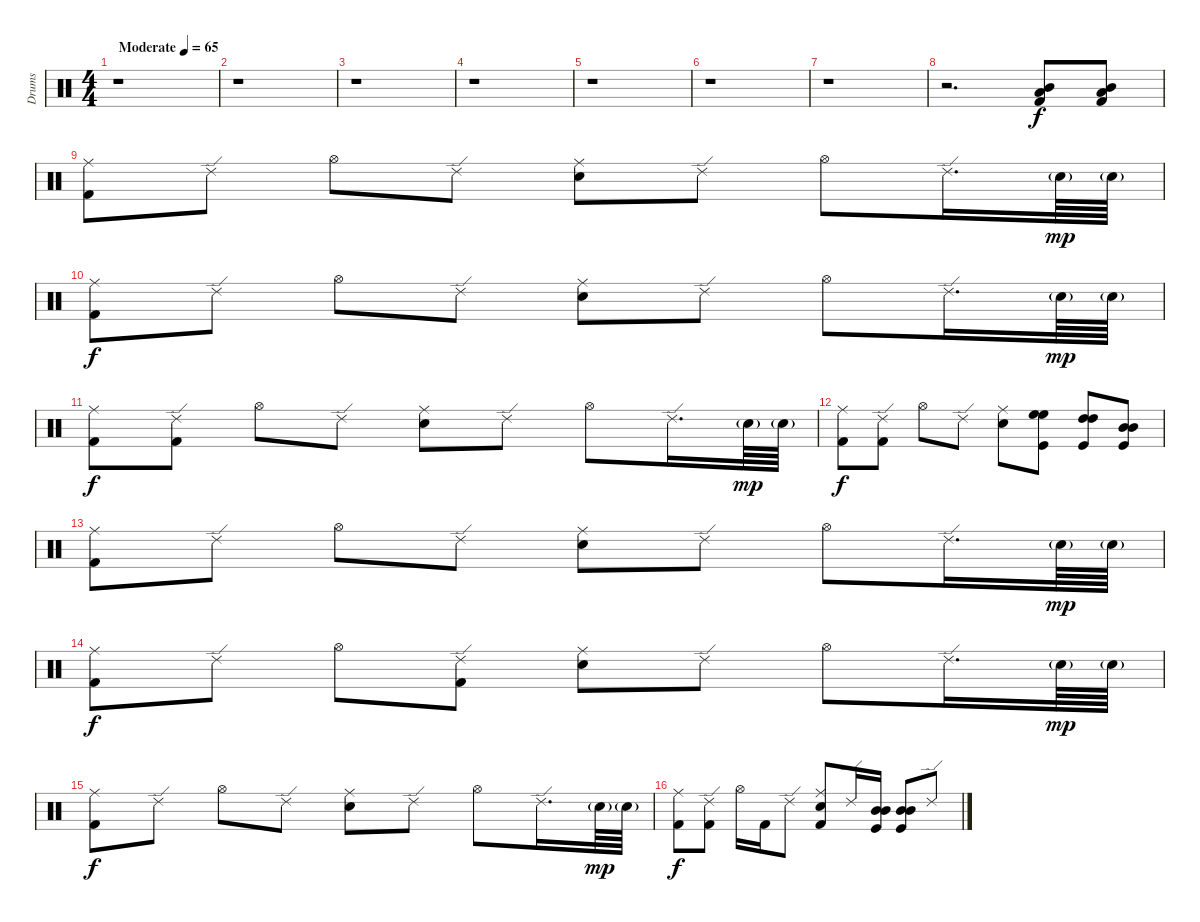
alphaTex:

\track ("Drums" "Drums") {instrument percussion}
\staff {score}
\articulation defaults
\ts (4 4)
\tempo (65 "Moderate")
\clef neutral
\ks c
r.1{dy f} |
r.1 |
r.1 |
r.1 |
r.1 |
r.1 |
r.1 |
r.2{d} ("Mid Tom (hit)" "Low Tom (hit)" "Kick (hit) 2").8 ("Mid Tom (hit)" "Low Tom (hit)" "Kick (hit) 2").8 |
("Ride (middle)" "Kick (hit) 2").8 "Ride (edge) 2".8 "Hi-Hat (open)".8 "Ride (edge) 2".8 ("Ride (middle)" "Snare (hit) 2").8 "Ride (edge) 2".8 "Hi-Hat (open)".8 "Ride (edge) 2".16{d} "Snare (hit) 2"{g}.64{dy mp} "Snare (hit) 2"{g}.64 |
("Ride (middle)" "Kick (hit) 2").8{dy f} "Ride (edge) 2".8 "Hi-Hat (open)".8 "Ride (edge) 2".8 ("Ride (middle)" "Snare (hit) 2").8 "Ride (edge) 2".8 "Hi-Hat (open)".8 "Ride (edge) 2".16{d} "Snare (hit) 2"{g}.64{dy mp} "Snare (hit) 2"{g}.64 |
("Ride (middle)" "Kick (hit) 2").8{dy f} ("Ride (edge) 2" "Kick (hit) 2").8 "Hi-Hat (open)".8 "Ride (edge) 2".8 ("Ride (middle)" "Snare (hit) 2").8 "Ride (edge) 2".8 "Hi-Hat (open)".8 "Ride (edge) 2".16{d} "Snare (hit) 2"{g}.64{dy mp} "Snare (hit) 2"{g}.64 |
("Ride (middle)" "Kick (hit) 2").8{dy f} ("Ride (edge) 2" "Kick (hit) 2").8 "Hi-Hat (open)".8 "Ride (edge) 2".8 ("Ride (middle)" "Snare (hit) 2").8 ("High Floor Tom (hit)" "High Floor Tom (hit)" "Kick (hit)").8 ("High Tom (hit)" "High Tom (hit)" "Kick (hit)").8 ("Mid Tom (hit)" "Mid Tom (hit)" "Kick (hit)").8 |
("Ride (middle)" "Kick (hit) 2").8 "Ride (edge) 2".8 "Hi-Hat (open)".8 "Ride (edge) 2".8 ("Ride (middle)" "Snare (hit) 2").8 "Ride (edge) 2".8 "Hi-Hat (open)".8 "Ride (edge) 2".16{d} "Snare (hit) 2"{g}.64{dy mp} "Snare (hit) 2"{g}.64 |
("Ride (middle)" "Kick (hit) 2").8{dy f} "Ride (edge) 2".8 "Hi-Hat (open)".8 ("Ride (edge) 2" "Kick (hit) 2").8 ("Ride (middle)" "Snare (hit) 2").8 "Ride (edge) 2".8 "Hi-Hat (open)".8 "Ride (edge) 2".16{d} "Snare (hit) 2"{g}.64{dy mp} "Snare (hit) 2"{g}.64 |
("Ride (middle)" "Kick (hit) 2").8{dy f} "Ride (edge) 2".8 "Hi-Hat (open)".8 "Ride (edge) 2".8 ("Ride (middle)" "Snare (hit) 2").8 "Ride (edge) 2".8 "Hi-Hat (open)".8 "Ride (edge) 2".16{d} "Snare (hit) 2"{g}.64{dy mp} "Snare (hit) 2"{g}.64 |
("Ride (middle)" "Kick (hit) 2").8{dy f} ("Ride (edge) 2" "Kick (hit) 2").8 "Hi-Hat (open)".16 "Kick (hit) 2".16 "Ride (edge) 2".8 ("Ride (middle)" "Snare (hit) 2" "Kick (hit) 2").8 "Ride (edge) 2".16 ("Mid Tom (hit)" "Mid Tom (hit)" "Kick (hit)").16 ("Mid Tom (hit)" "Mid Tom (hit)" "Kick (hit)").8 "Ride (edge) 2".8
